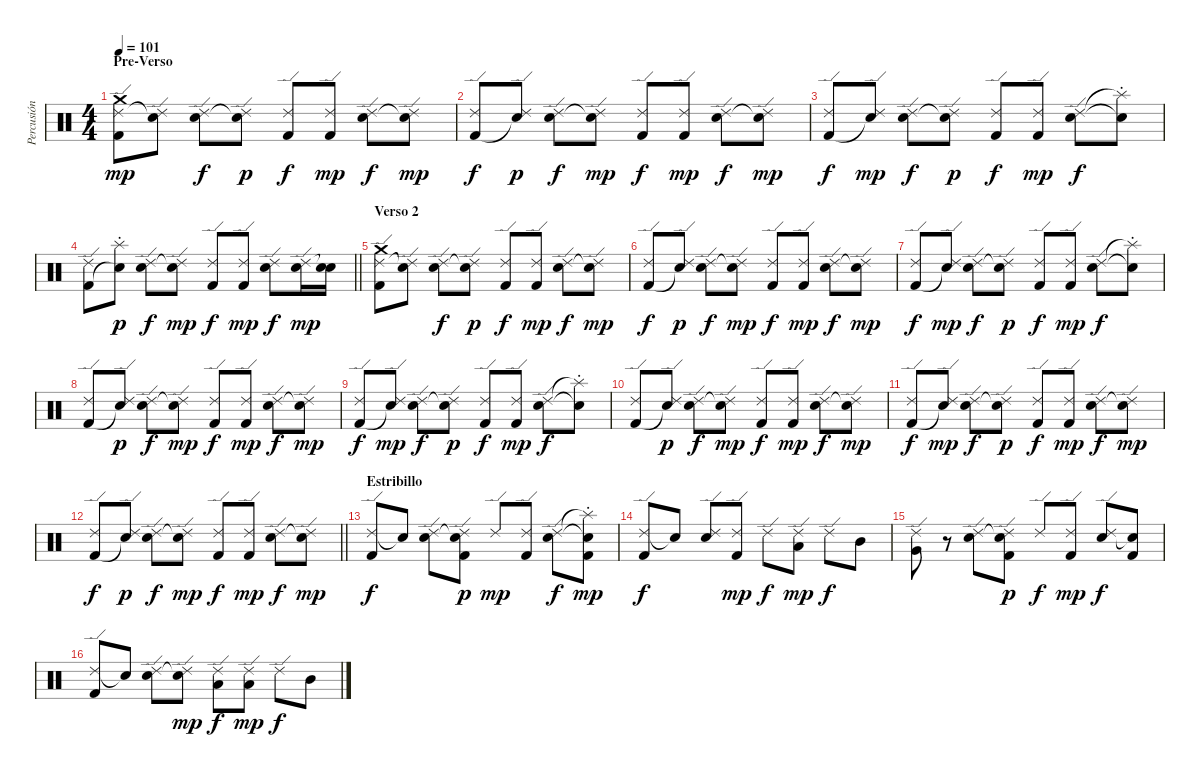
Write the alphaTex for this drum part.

\track ("Percusión" "Percusión") {instrument percussion}
\staff {score}
\articulation defaults
\ts (4 4)
\section ("" "Pre-Verso")
\tempo 101
\clef neutral
\ks c
("Crash medium (hit)" "Ride (edge) 2" "Kick (hit) 2").8{dy mp} ("Ride (edge) 2" "Snare (hit)"{t}).8 ("Ride (edge) 2" "Snare (hit) 2").8{dy f} ("Ride (edge) 2" "Snare (hit)"{t}).8{dy p} ("Ride (edge) 2" "Kick (hit) 2").8{dy f} ("Ride (edge) 2" "Kick (hit) 2").8{dy mp} ("Ride (edge) 2" "Snare (hit) 2").8{dy f} ("Ride (edge) 2" "Snare (hit)"{t}).8{dy mp} |
("Ride (edge) 2" "Kick (hit) 2").8{dy f} ("Ride (edge) 2" "Snare (hit)"{t}).8{dy p} ("Ride (edge) 2" "Snare (hit) 2").8{dy f} ("Ride (edge) 2" "Snare (hit)"{t}).8{dy mp} ("Ride (edge) 2" "Kick (hit) 2").8{dy f} ("Ride (edge) 2" "Kick (hit) 2").8{dy mp} ("Ride (edge) 2" "Snare (hit) 2").8{dy f} ("Ride (edge) 2" "Snare (hit)"{t}).8{dy mp} |
("Ride (edge) 2" "Kick (hit) 2").8{dy f} ("Ride (edge) 2" "Snare (hit)"{t}).8{dy mp} ("Ride (edge) 2" "Snare (hit) 2").8{dy f} ("Ride (edge) 2" "Snare (hit)"{t}).8{dy p} ("Ride (edge) 2" "Kick (hit) 2").8{dy f} ("Ride (edge) 2" "Kick (hit) 2").8{dy mp} ("Ride (edge) 2" "Snare (hit) 2").8{dy f} ("Splash (choke)"{t} "Snare (hit)"{t}).8 |
\barLineRight lightlight
("Ride (edge) 2" "Kick (hit) 2").8 ("Splash (choke)" "Snare (hit)"{t}).8{dy p} ("Ride (edge) 2" "Snare (hit) 2").8{dy f} ("Ride (edge) 2" "Snare (hit)"{t}).8{dy mp} ("Ride (edge) 2" "Kick (hit) 2").8{dy f} ("Ride (edge) 2" "Kick (hit) 2").8{dy mp} ("Ride (edge) 2" "Snare (hit) 2").8{dy f} ("Ride (edge) 2" "Snare (hit) 2").16{dy mp} ("Snare (hit)"{t} "Snare (hit) 2").16 |
\section ("" "Verso 2")
("Crash medium (hit)" "Ride (edge) 2" "Kick (hit) 2").8 ("Ride (edge) 2" "Snare (hit)"{t}).8 ("Ride (edge) 2" "Snare (hit) 2").8{dy f} ("Ride (edge) 2" "Snare (hit)"{t}).8{dy p} ("Ride (edge) 2" "Kick (hit) 2").8{dy f} ("Ride (edge) 2" "Kick (hit) 2").8{dy mp} ("Ride (edge) 2" "Snare (hit) 2").8{dy f} ("Ride (edge) 2" "Snare (hit)"{t}).8{dy mp} |
("Ride (edge) 2" "Kick (hit) 2").8{dy f} ("Ride (edge) 2" "Snare (hit)"{t}).8{dy p} ("Ride (edge) 2" "Snare (hit) 2").8{dy f} ("Ride (edge) 2" "Snare (hit)"{t}).8{dy mp} ("Ride (edge) 2" "Kick (hit) 2").8{dy f} ("Ride (edge) 2" "Kick (hit) 2").8{dy mp} ("Ride (edge) 2" "Snare (hit) 2").8{dy f} ("Ride (edge) 2" "Snare (hit)"{t}).8{dy mp} |
("Ride (edge) 2" "Kick (hit) 2").8{dy f} ("Ride (edge) 2" "Snare (hit)"{t}).8{dy mp} ("Ride (edge) 2" "Snare (hit) 2").8{dy f} ("Ride (edge) 2" "Snare (hit)"{t}).8{dy p} ("Ride (edge) 2" "Kick (hit) 2").8{dy f} ("Ride (edge) 2" "Kick (hit) 2").8{dy mp} ("Ride (edge) 2" "Snare (hit) 2").8{dy f} ("Splash (choke)"{t} "Snare (hit)"{t}).8 |
("Ride (edge) 2" "Kick (hit) 2").8 ("Ride (edge) 2" "Snare (hit)"{t}).8{dy p} ("Ride (edge) 2" "Snare (hit) 2").8{dy f} ("Ride (edge) 2" "Snare (hit)"{t}).8{dy mp} ("Ride (edge) 2" "Kick (hit) 2").8{dy f} ("Ride (edge) 2" "Kick (hit) 2").8{dy mp} ("Ride (edge) 2" "Snare (hit) 2").8{dy f} ("Ride (edge) 2" "Snare (hit)"{t}).8{dy mp} |
("Ride (edge) 2" "Kick (hit) 2").8{dy f} ("Ride (edge) 2" "Snare (hit)"{t}).8{dy mp} ("Ride (edge) 2" "Snare (hit) 2").8{dy f} ("Ride (edge) 2" "Snare (hit)"{t}).8{dy p} ("Ride (edge) 2" "Kick (hit) 2").8{dy f} ("Ride (edge) 2" "Kick (hit) 2").8{dy mp} ("Ride (edge) 2" "Snare (hit) 2").8{dy f} ("Splash (choke)"{t} "Snare (hit)"{t}).8 |
("Ride (edge) 2" "Kick (hit) 2").8 ("Ride (edge) 2" "Snare (hit)"{t}).8{dy p} ("Ride (edge) 2" "Snare (hit) 2").8{dy f} ("Ride (edge) 2" "Snare (hit)"{t}).8{dy mp} ("Ride (edge) 2" "Kick (hit) 2").8{dy f} ("Ride (edge) 2" "Kick (hit) 2").8{dy mp} ("Ride (edge) 2" "Snare (hit) 2").8{dy f} ("Ride (edge) 2" "Snare (hit)"{t}).8{dy mp} |
("Ride (edge) 2" "Kick (hit) 2").8{dy f} ("Ride (edge) 2" "Snare (hit)"{t}).8{dy mp} ("Ride (edge) 2" "Snare (hit) 2").8{dy f} ("Ride (edge) 2" "Snare (hit)"{t}).8{dy p} ("Ride (edge) 2" "Kick (hit) 2").8{dy f} ("Ride (edge) 2" "Kick (hit) 2").8{dy mp} ("Ride (edge) 2" "Snare (hit) 2").8{dy f} ("Ride (edge) 2" "Snare (hit)"{t}).8{dy mp} |
\barLineRight lightlight
("Ride (edge) 2" "Kick (hit) 2").8{dy f} ("Ride (edge) 2" "Snare (hit)"{t}).8{dy p} ("Ride (edge) 2" "Snare (hit) 2").8{dy f} ("Ride (edge) 2" "Snare (hit)"{t}).8{dy mp} ("Ride (edge) 2" "Kick (hit) 2").8{dy f} ("Ride (edge) 2" "Kick (hit) 2").8{dy mp} ("Ride (edge) 2" "Snare (hit) 2").8{dy f} ("Ride (edge) 2" "Snare (hit)"{t}).8{dy mp} |
\section ("" "Estribillo")
("Ride (edge) 2" "Kick (hit) 2").8{dy f} "Snare (hit)"{t}.8 ("Ride (edge) 2" "Snare (hit) 2").8 ("Ride (edge) 2" "Snare (hit)"{t} "Kick (hit) 2").8{dy p} "Ride (edge) 2".8{dy mp} ("Ride (edge) 2" "Kick (hit) 2").8 ("Ride (edge) 2" "Snare (hit) 2").8{dy f} ("Splash (choke)"{t} "Snare (hit)"{t} "Kick (hit) 2").8{dy mp} |
("Ride (edge) 2" "Kick (hit) 2").8{dy f} "Snare (hit)"{t}.8 ("Ride (edge) 2" "Snare (hit) 2").8 ("Ride (edge) 2" "Kick (hit) 2").8{dy mp} "Ride (edge) 2".8{dy f} ("Ride (edge) 2" "Low Tom (hit)").8{dy mp} "Ride (edge) 2".8{dy f} "Mid Tom (hit)".8 |
("Ride (edge) 2" "Very Low Tom (hit)").8 r.8 ("Ride (edge) 2" "Snare (hit) 2").8 ("Ride (edge) 2" "Snare (hit)"{t} "Kick (hit) 2").8{dy p} "Ride (edge) 2".8{dy f} ("Ride (edge) 2" "Kick (hit) 2").8{dy mp} ("Ride (edge) 2" "Snare (hit) 2").8{dy f} ("Snare (hit)"{t} "Kick (hit) 2").8 |
("Ride (edge) 2" "Kick (hit) 2").8 "Snare (hit)"{t}.8 ("Ride (edge) 2" "Snare (hit) 2").8 ("Ride (edge) 2" "Snare (hit)"{t}).8{dy mp} ("Ride (edge) 2" "Low Tom (hit)").8{dy f} ("Ride (edge) 2" "Low Tom (hit)").8{dy mp} "Ride (edge) 2".8{dy f} "Mid Tom (hit)".8
